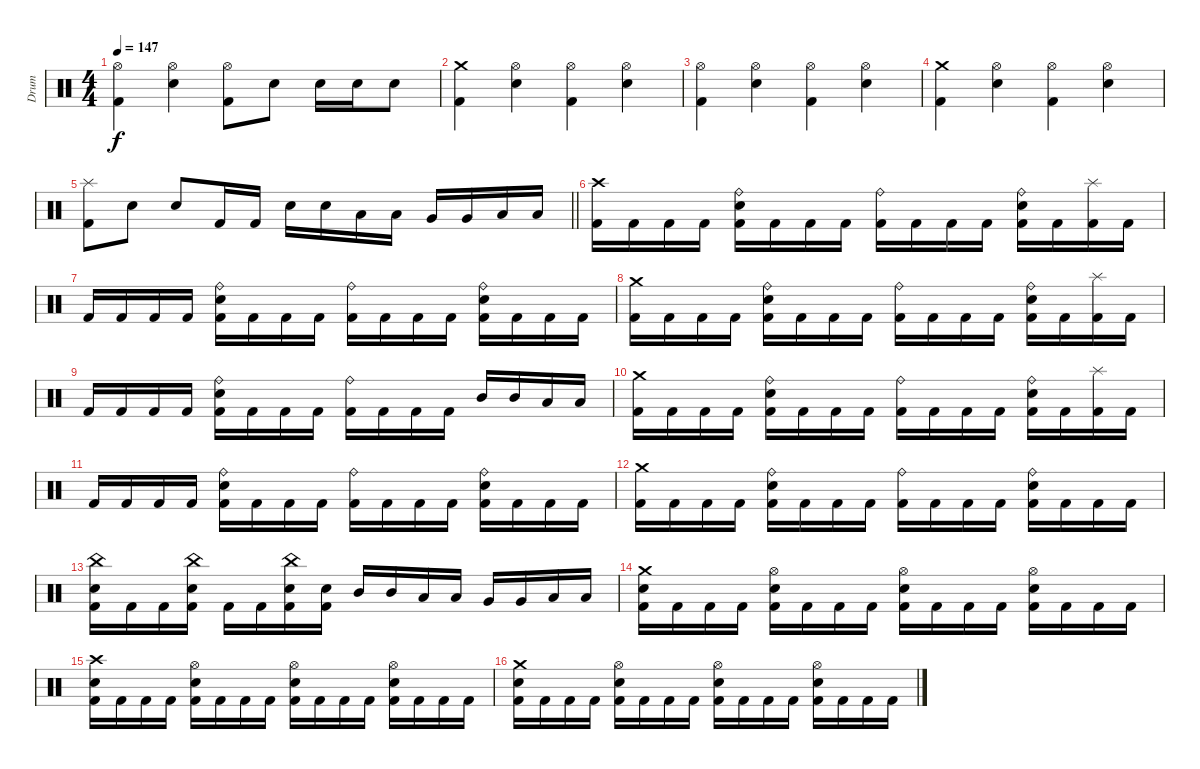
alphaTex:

\track ("Drum" "Drum") {instrument percussion}
\staff {score}
\articulation defaults
\ts (4 4)
\tempo 147
\clef neutral
\ks c
("Hi-Hat (open)" "Kick (hit) 2").4{dy f} ("Hi-Hat (open)" "Electric Snare (hit)").4 ("Hi-Hat (open)" "Kick (hit) 2").8 "Electric Snare (hit)".8 "Electric Snare (hit)".16 "Electric Snare (hit)".16 "Electric Snare (hit)".8 |
("Crash medium (hit)" "Kick (hit) 2").4 ("Hi-Hat (open)" "Electric Snare (hit)").4 ("Hi-Hat (open)" "Kick (hit) 2").4 ("Hi-Hat (open)" "Electric Snare (hit)").4 |
("Hi-Hat (open)" "Kick (hit) 2").4 ("Hi-Hat (open)" "Electric Snare (hit)").4 ("Hi-Hat (open)" "Kick (hit) 2").4 ("Hi-Hat (open)" "Electric Snare (hit)").4 |
("Crash medium (hit)" "Kick (hit) 2").4 ("Hi-Hat (open)" "Electric Snare (hit)").4 ("Hi-Hat (open)" "Kick (hit) 2").4 ("Hi-Hat (open)" "Electric Snare (hit)").4 |
\barLineRight lightlight
("Splash (hit)" "Kick (hit) 2").8 "Electric Snare (hit)".8 "Electric Snare (hit)".8 "Kick (hit) 2".16 "Kick (hit) 2".16 "Electric Snare (hit)".16 "Electric Snare (hit)".16 "Low Tom (hit)".16 "Low Tom (hit)".16 "Very Low Tom (hit)".16 "Very Low Tom (hit)".16 "Low Floor Tom (hit)".16 "Low Floor Tom (hit)".16 |
\section ("" "")
("Crash high (hit)" "Kick (hit) 2").16 "Kick (hit) 2".16 "Kick (hit) 2".16 "Kick (hit) 2".16 ("Ride (bell)" "Electric Snare (hit)" "Kick (hit) 2").16 "Kick (hit) 2".16 "Kick (hit) 2".16 "Kick (hit) 2".16 ("Ride (bell)" "Kick (hit) 2").16 "Kick (hit) 2".16 "Kick (hit) 2".16 "Kick (hit) 2".16 ("Ride (bell)" "Electric Snare (hit)" "Kick (hit) 2").16 "Kick (hit) 2".16 ("Splash (hit)" "Kick (hit) 2").16 "Kick (hit) 2".16 |
"Kick (hit) 2".16 "Kick (hit) 2".16 "Kick (hit) 2".16 "Kick (hit) 2".16 ("Ride (bell)" "Electric Snare (hit)" "Kick (hit) 2").16 "Kick (hit) 2".16 "Kick (hit) 2".16 "Kick (hit) 2".16 ("Ride (bell)" "Kick (hit) 2").16 "Kick (hit) 2".16 "Kick (hit) 2".16 "Kick (hit) 2".16 ("Ride (bell)" "Electric Snare (hit)" "Kick (hit) 2").16 "Kick (hit) 2".16 "Kick (hit) 2".16 "Kick (hit) 2".16 |
("Crash medium (hit)" "Kick (hit) 2").16 "Kick (hit) 2".16 "Kick (hit) 2".16 "Kick (hit) 2".16 ("Ride (bell)" "Electric Snare (hit)" "Kick (hit) 2").16 "Kick (hit) 2".16 "Kick (hit) 2".16 "Kick (hit) 2".16 ("Ride (bell)" "Kick (hit) 2").16 "Kick (hit) 2".16 "Kick (hit) 2".16 "Kick (hit) 2".16 ("Ride (bell)" "Electric Snare (hit)" "Kick (hit) 2").16 "Kick (hit) 2".16 ("Splash (hit)" "Kick (hit) 2").16 "Kick (hit) 2".16 |
"Kick (hit) 2".16 "Kick (hit) 2".16 "Kick (hit) 2".16 "Kick (hit) 2".16 ("Ride (bell)" "Electric Snare (hit)" "Kick (hit) 2").16 "Kick (hit) 2".16 "Kick (hit) 2".16 "Kick (hit) 2".16 ("Ride (bell)" "Kick (hit) 2").16 "Kick (hit) 2".16 "Kick (hit) 2".16 "Kick (hit) 2".16 "Mid Tom (hit)".16 "Mid Tom (hit)".16 "Low Tom (hit)".16 "Low Tom (hit)".16 |
("Crash medium (hit)" "Kick (hit) 2").16 "Kick (hit) 2".16 "Kick (hit) 2".16 "Kick (hit) 2".16 ("Ride (bell)" "Electric Snare (hit)" "Kick (hit) 2").16 "Kick (hit) 2".16 "Kick (hit) 2".16 "Kick (hit) 2".16 ("Ride (bell)" "Kick (hit) 2").16 "Kick (hit) 2".16 "Kick (hit) 2".16 "Kick (hit) 2".16 ("Ride (bell)" "Electric Snare (hit)" "Kick (hit) 2").16 "Kick (hit) 2".16 ("Splash (hit)" "Kick (hit) 2").16 "Kick (hit) 2".16 |
"Kick (hit) 2".16 "Kick (hit) 2".16 "Kick (hit) 2".16 "Kick (hit) 2".16 ("Ride (bell)" "Electric Snare (hit)" "Kick (hit) 2").16 "Kick (hit) 2".16 "Kick (hit) 2".16 "Kick (hit) 2".16 ("Ride (bell)" "Kick (hit) 2").16 "Kick (hit) 2".16 "Kick (hit) 2".16 "Kick (hit) 2".16 ("Ride (bell)" "Electric Snare (hit)" "Kick (hit) 2").16 "Kick (hit) 2".16 "Kick (hit) 2".16 "Kick (hit) 2".16 |
("Crash medium (hit)" "Kick (hit) 2").16 "Kick (hit) 2".16 "Kick (hit) 2".16 "Kick (hit) 2".16 ("Ride (bell)" "Electric Snare (hit)" "Kick (hit) 2").16 "Kick (hit) 2".16 "Kick (hit) 2".16 "Kick (hit) 2".16 ("Ride (bell)" "Kick (hit) 2").16 "Kick (hit) 2".16 "Kick (hit) 2".16 "Kick (hit) 2".16 ("Ride (bell)" "Electric Snare (hit)" "Kick (hit) 2").16 "Kick (hit) 2".16 "Kick (hit) 2".16 "Kick (hit) 2".16 |
("China (hit)" "Electric Snare (hit)" "Kick (hit) 2").16 "Kick (hit) 2".16 "Kick (hit) 2".16 ("China (hit)" "Electric Snare (hit)" "Kick (hit) 2").16 "Kick (hit) 2".16 "Kick (hit) 2".16 ("China (hit)" "Electric Snare (hit)" "Kick (hit) 2").16 ("Electric Snare (hit)" "Kick (hit) 2").16 "Mid Tom (hit)".16 "Mid Tom (hit)".16 "Low Tom (hit)".16 "Low Tom (hit)".16 "Very Low Tom (hit)".16 "Very Low Tom (hit)".16 "Low Floor Tom (hit)".16 "Low Floor Tom (hit)".16 |
("Crash medium (hit)" "Electric Snare (hit)" "Kick (hit) 2").16 "Kick (hit) 2".16 "Kick (hit) 2".16 "Kick (hit) 2".16 ("Hi-Hat (open)" "Electric Snare (hit)" "Kick (hit) 2").16 "Kick (hit) 2".16 "Kick (hit) 2".16 "Kick (hit) 2".16 ("Hi-Hat (open)" "Electric Snare (hit)" "Kick (hit) 2").16 "Kick (hit) 2".16 "Kick (hit) 2".16 "Kick (hit) 2".16 ("Hi-Hat (open)" "Electric Snare (hit)" "Kick (hit) 2").16 "Kick (hit) 2".16 "Kick (hit) 2".16 "Kick (hit) 2".16 |
("Crash high (hit)" "Electric Snare (hit)" "Kick (hit) 2").16 "Kick (hit) 2".16 "Kick (hit) 2".16 "Kick (hit) 2".16 ("Hi-Hat (open)" "Electric Snare (hit)" "Kick (hit) 2").16 "Kick (hit) 2".16 "Kick (hit) 2".16 "Kick (hit) 2".16 ("Hi-Hat (open)" "Electric Snare (hit)" "Kick (hit) 2").16 "Kick (hit) 2".16 "Kick (hit) 2".16 "Kick (hit) 2".16 ("Hi-Hat (open)" "Electric Snare (hit)" "Kick (hit) 2").16 "Kick (hit) 2".16 "Kick (hit) 2".16 "Kick (hit) 2".16 |
("Crash medium (hit)" "Electric Snare (hit)" "Kick (hit) 2").16 "Kick (hit) 2".16 "Kick (hit) 2".16 "Kick (hit) 2".16 ("Hi-Hat (open)" "Electric Snare (hit)" "Kick (hit) 2").16 "Kick (hit) 2".16 "Kick (hit) 2".16 "Kick (hit) 2".16 ("Hi-Hat (open)" "Electric Snare (hit)" "Kick (hit) 2").16 "Kick (hit) 2".16 "Kick (hit) 2".16 "Kick (hit) 2".16 ("Hi-Hat (open)" "Electric Snare (hit)" "Kick (hit) 2").16 "Kick (hit) 2".16 "Kick (hit) 2".16 "Kick (hit) 2".16
